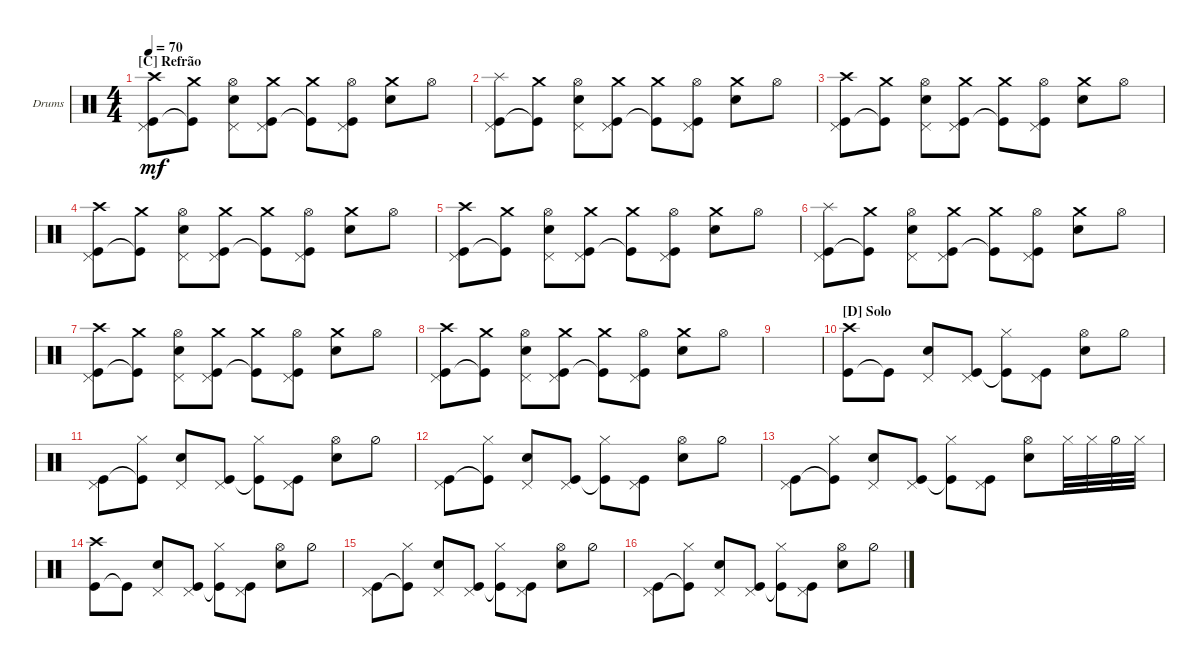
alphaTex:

\defaultSystemsLayout 4
\bracketExtendMode groupsimilarinstruments
\firstSystemTrackNameOrientation horizontal
\otherSystemsTrackNameOrientation horizontal
\track ("Drum" "Drums") {multiBarRest instrument percussion}
\staff {score}
\articulation defaults
\ts (4 4)
\section ("C" "Refrão")
\tempo 70
\clef neutral
\ks c
("Kick (hit)" "Pedal Hi-Hat (hit)" "Crash high (hit)").8{dy mf} ("Kick (hit)"{t} "Crash medium (hit)").8 ("Snare (hit) 2" "Pedal Hi-Hat (hit)" "Hi-Hat (open)").8 ("Kick (hit)" "Pedal Hi-Hat (hit)" "Crash medium (hit)").8 ("Kick (hit)"{t} "Crash medium (hit)").8 ("Kick (hit)" "Pedal Hi-Hat (hit)" "Hi-Hat (open)").8 ("Snare (hit) 2" "Crash medium (hit)").8 "Hi-Hat (open)".8 |
("Kick (hit)" "Pedal Hi-Hat (hit)" "Splash (hit)").8 ("Kick (hit)"{t} "Crash medium (hit)").8 ("Snare (hit) 2" "Pedal Hi-Hat (hit)" "Hi-Hat (open)").8 ("Kick (hit)" "Pedal Hi-Hat (hit)" "Crash medium (hit)").8 ("Kick (hit)"{t} "Crash medium (hit)").8 ("Kick (hit)" "Pedal Hi-Hat (hit)" "Hi-Hat (open)").8 ("Snare (hit) 2" "Crash medium (hit)").8 "Hi-Hat (open)".8 |
("Kick (hit)" "Pedal Hi-Hat (hit)" "Crash high (hit)").8 ("Kick (hit)"{t} "Crash medium (hit)").8 ("Snare (hit) 2" "Pedal Hi-Hat (hit)" "Hi-Hat (open)").8 ("Kick (hit)" "Pedal Hi-Hat (hit)" "Crash medium (hit)").8 ("Kick (hit)"{t} "Crash medium (hit)").8 ("Kick (hit)" "Pedal Hi-Hat (hit)" "Hi-Hat (open)").8 ("Snare (hit) 2" "Crash medium (hit)").8 "Hi-Hat (open)".8 |
("Kick (hit)" "Pedal Hi-Hat (hit)" "Crash high (hit)").8 ("Kick (hit)"{t} "Crash medium (hit)").8 ("Snare (hit) 2" "Pedal Hi-Hat (hit)" "Hi-Hat (open)").8 ("Kick (hit)" "Pedal Hi-Hat (hit)" "Crash medium (hit)").8 ("Kick (hit)"{t} "Crash medium (hit)").8 ("Kick (hit)" "Pedal Hi-Hat (hit)" "Hi-Hat (open)").8 ("Snare (hit) 2" "Crash medium (hit)").8 "Hi-Hat (open)".8 |
("Kick (hit)" "Pedal Hi-Hat (hit)" "Crash high (hit)").8 ("Kick (hit)"{t} "Crash medium (hit)").8 ("Snare (hit) 2" "Pedal Hi-Hat (hit)" "Hi-Hat (open)").8 ("Kick (hit)" "Pedal Hi-Hat (hit)" "Crash medium (hit)").8 ("Kick (hit)"{t} "Crash medium (hit)").8 ("Kick (hit)" "Pedal Hi-Hat (hit)" "Hi-Hat (open)").8 ("Snare (hit) 2" "Crash medium (hit)").8 "Hi-Hat (open)".8 |
("Kick (hit)" "Pedal Hi-Hat (hit)" "Splash (hit)").8 ("Kick (hit)"{t} "Crash medium (hit)").8 ("Snare (hit) 2" "Pedal Hi-Hat (hit)" "Hi-Hat (open)").8 ("Kick (hit)" "Pedal Hi-Hat (hit)" "Crash medium (hit)").8 ("Kick (hit)"{t} "Crash medium (hit)").8 ("Kick (hit)" "Pedal Hi-Hat (hit)" "Hi-Hat (open)").8 ("Snare (hit) 2" "Crash medium (hit)").8 "Hi-Hat (open)".8 |
("Kick (hit)" "Pedal Hi-Hat (hit)" "Crash high (hit)").8 ("Kick (hit)"{t} "Crash medium (hit)").8 ("Snare (hit) 2" "Pedal Hi-Hat (hit)" "Hi-Hat (open)").8 ("Kick (hit)" "Pedal Hi-Hat (hit)" "Crash medium (hit)").8 ("Kick (hit)"{t} "Crash medium (hit)").8 ("Kick (hit)" "Pedal Hi-Hat (hit)" "Hi-Hat (open)").8 ("Snare (hit) 2" "Crash medium (hit)").8 "Hi-Hat (open)".8 |
("Kick (hit)" "Pedal Hi-Hat (hit)" "Crash high (hit)").8 ("Kick (hit)"{t} "Crash medium (hit)").8 ("Snare (hit) 2" "Pedal Hi-Hat (hit)" "Hi-Hat (open)").8 ("Kick (hit)" "Pedal Hi-Hat (hit)" "Crash medium (hit)").8 ("Kick (hit)"{t} "Crash medium (hit)").8 ("Kick (hit)" "Pedal Hi-Hat (hit)" "Hi-Hat (open)").8 ("Snare (hit) 2" "Crash medium (hit)").8 "Hi-Hat (open)".8 |
|
\section ("D" "Solo")
("Kick (hit)" "Crash high (hit)").8 "Kick (hit)"{t}.8 ("Snare (hit) 2" "Pedal Hi-Hat (hit)").8 ("Kick (hit)" "Pedal Hi-Hat (hit)").8 ("Kick (hit)"{t} "Hi-Hat (closed)").8 ("Kick (hit)" "Pedal Hi-Hat (hit)").8 ("Snare (hit) 2" "Hi-Hat (open)").8 "Hi-Hat (half)".8 |
("Kick (hit)" "Pedal Hi-Hat (hit)").8 ("Kick (hit)"{t} "Hi-Hat (closed)").8 ("Snare (hit) 2" "Pedal Hi-Hat (hit)").8 ("Kick (hit)" "Pedal Hi-Hat (hit)").8 ("Kick (hit)"{t} "Hi-Hat (closed)").8 ("Kick (hit)" "Pedal Hi-Hat (hit)").8 ("Snare (hit) 2" "Hi-Hat (open)").8 "Hi-Hat (half)".8 |
("Kick (hit)" "Pedal Hi-Hat (hit)").8 ("Kick (hit)"{t} "Hi-Hat (closed)").8 ("Snare (hit) 2" "Pedal Hi-Hat (hit)").8 ("Kick (hit)" "Pedal Hi-Hat (hit)").8 ("Kick (hit)"{t} "Hi-Hat (closed)").8 ("Kick (hit)" "Pedal Hi-Hat (hit)").8 ("Snare (hit) 2" "Hi-Hat (open)").8 "Hi-Hat (half)".8 |
("Kick (hit)" "Pedal Hi-Hat (hit)").8 ("Kick (hit)"{t} "Hi-Hat (closed)").8 ("Snare (hit) 2" "Pedal Hi-Hat (hit)").8 ("Kick (hit)" "Pedal Hi-Hat (hit)").8 ("Kick (hit)"{t} "Hi-Hat (closed)").8 ("Kick (hit)" "Pedal Hi-Hat (hit)").8 ("Snare (hit) 2" "Hi-Hat (open)").8 "Hi-Hat (closed)".32 "Hi-Hat (closed)".32 "Hi-Hat (half)".32 "Hi-Hat (closed)".32 |
("Kick (hit)" "Crash high (hit)").8 "Kick (hit)"{t}.8 ("Snare (hit) 2" "Pedal Hi-Hat (hit)").8 ("Kick (hit)" "Pedal Hi-Hat (hit)").8 ("Kick (hit)"{t} "Hi-Hat (closed)").8 ("Kick (hit)" "Pedal Hi-Hat (hit)").8 ("Snare (hit) 2" "Hi-Hat (open)").8 "Hi-Hat (half)".8 |
("Kick (hit)" "Pedal Hi-Hat (hit)").8 ("Kick (hit)"{t} "Hi-Hat (closed)").8 ("Snare (hit) 2" "Pedal Hi-Hat (hit)").8 ("Kick (hit)" "Pedal Hi-Hat (hit)").8 ("Kick (hit)"{t} "Hi-Hat (closed)").8 ("Kick (hit)" "Pedal Hi-Hat (hit)").8 ("Snare (hit) 2" "Hi-Hat (open)").8 "Hi-Hat (half)".8 |
("Kick (hit)" "Pedal Hi-Hat (hit)").8 ("Kick (hit)"{t} "Hi-Hat (closed)").8 ("Snare (hit) 2" "Pedal Hi-Hat (hit)").8 ("Kick (hit)" "Pedal Hi-Hat (hit)").8 ("Kick (hit)"{t} "Hi-Hat (closed)").8 ("Kick (hit)" "Pedal Hi-Hat (hit)").8 ("Snare (hit) 2" "Hi-Hat (open)").8 "Hi-Hat (half)".8
